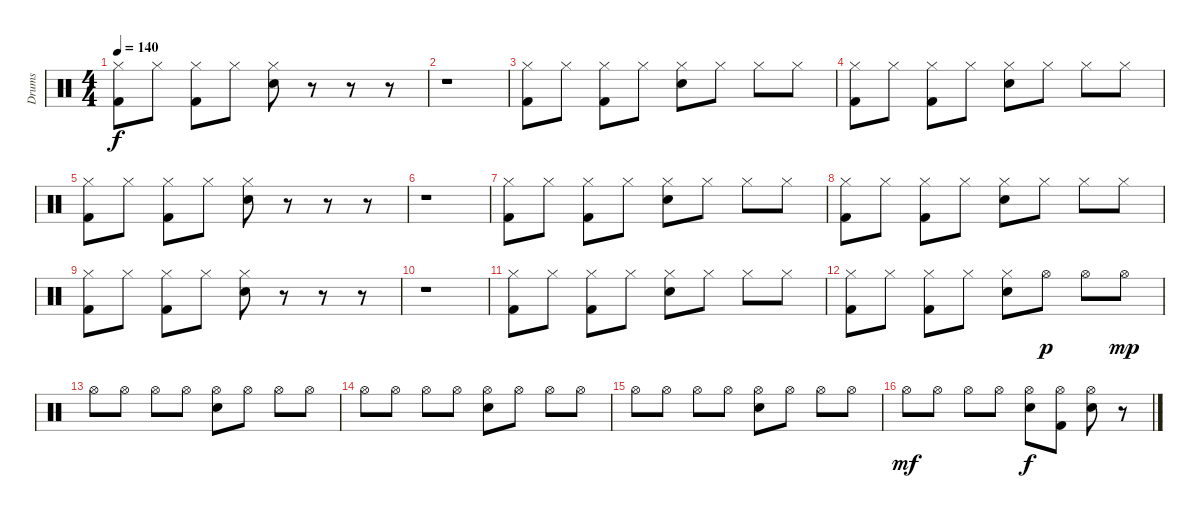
\track ("Drums" "Drums") {instrument percussion}
\staff {score}
\articulation defaults
\ts (4 4)
\tempo 140
\clef neutral
\ks c
("Hi-Hat (closed)" "Kick (hit) 2").8{dy f} "Hi-Hat (closed)".8 ("Hi-Hat (closed)" "Kick (hit) 2").8 "Hi-Hat (closed)".8 ("Hi-Hat (closed)" "Electric Snare (hit)").8 r.8 r.8 r.8 |
r.1 |
("Hi-Hat (closed)" "Kick (hit) 2").8 "Hi-Hat (closed)".8 ("Hi-Hat (closed)" "Kick (hit) 2").8 "Hi-Hat (closed)".8 ("Hi-Hat (closed)" "Electric Snare (hit)").8 "Hi-Hat (closed)".8 "Hi-Hat (closed)".8 "Hi-Hat (closed)".8 |
("Hi-Hat (closed)" "Kick (hit) 2").8 "Hi-Hat (closed)".8 ("Hi-Hat (closed)" "Kick (hit) 2").8 "Hi-Hat (closed)".8 ("Hi-Hat (closed)" "Electric Snare (hit)").8 "Hi-Hat (closed)".8 "Hi-Hat (closed)".8 "Hi-Hat (closed)".8 |
("Hi-Hat (closed)" "Kick (hit) 2").8 "Hi-Hat (closed)".8 ("Hi-Hat (closed)" "Kick (hit) 2").8 "Hi-Hat (closed)".8 ("Hi-Hat (closed)" "Electric Snare (hit)").8 r.8 r.8 r.8 |
r.1 |
("Hi-Hat (closed)" "Kick (hit) 2").8 "Hi-Hat (closed)".8 ("Hi-Hat (closed)" "Kick (hit) 2").8 "Hi-Hat (closed)".8 ("Hi-Hat (closed)" "Electric Snare (hit)").8 "Hi-Hat (closed)".8 "Hi-Hat (closed)".8 "Hi-Hat (closed)".8 |
("Hi-Hat (closed)" "Kick (hit) 2").8 "Hi-Hat (closed)".8 ("Hi-Hat (closed)" "Kick (hit) 2").8 "Hi-Hat (closed)".8 ("Hi-Hat (closed)" "Electric Snare (hit)").8 "Hi-Hat (closed)".8 "Hi-Hat (closed)".8 "Hi-Hat (closed)".8 |
("Hi-Hat (closed)" "Kick (hit) 2").8 "Hi-Hat (closed)".8 ("Hi-Hat (closed)" "Kick (hit) 2").8 "Hi-Hat (closed)".8 ("Hi-Hat (closed)" "Electric Snare (hit)").8 r.8 r.8 r.8 |
r.1 |
("Hi-Hat (closed)" "Kick (hit) 2").8 "Hi-Hat (closed)".8 ("Hi-Hat (closed)" "Kick (hit) 2").8 "Hi-Hat (closed)".8 ("Hi-Hat (closed)" "Electric Snare (hit)").8 "Hi-Hat (closed)".8 "Hi-Hat (closed)".8 "Hi-Hat (closed)".8 |
("Hi-Hat (closed)" "Kick (hit) 2").8 "Hi-Hat (closed)".8 ("Hi-Hat (closed)" "Kick (hit) 2").8 "Hi-Hat (closed)".8 ("Hi-Hat (closed)" "Electric Snare (hit)").8 "Hi-Hat (open)".8{dy p} "Hi-Hat (open)".8 "Hi-Hat (open)".8{dy mp} |
"Hi-Hat (open)".8 "Hi-Hat (open)".8 "Hi-Hat (open)".8 "Hi-Hat (open)".8 ("Hi-Hat (open)" "Electric Snare (hit)").8 "Hi-Hat (open)".8 "Hi-Hat (open)".8 "Hi-Hat (open)".8 |
"Hi-Hat (open)".8 "Hi-Hat (open)".8 "Hi-Hat (open)".8 "Hi-Hat (open)".8 ("Hi-Hat (open)" "Electric Snare (hit)").8 "Hi-Hat (open)".8 "Hi-Hat (open)".8 "Hi-Hat (open)".8 |
"Hi-Hat (open)".8 "Hi-Hat (open)".8 "Hi-Hat (open)".8 "Hi-Hat (open)".8 ("Hi-Hat (open)" "Electric Snare (hit)").8 "Hi-Hat (open)".8 "Hi-Hat (open)".8 "Hi-Hat (open)".8 |
"Hi-Hat (open)".8{dy mf} "Hi-Hat (open)".8 "Hi-Hat (open)".8 "Hi-Hat (open)".8 ("Hi-Hat (open)" "Electric Snare (hit)").8{dy f} ("Hi-Hat (open)" "Kick (hit) 2").8 ("Hi-Hat (open)" "Electric Snare (hit)").8 r.8
